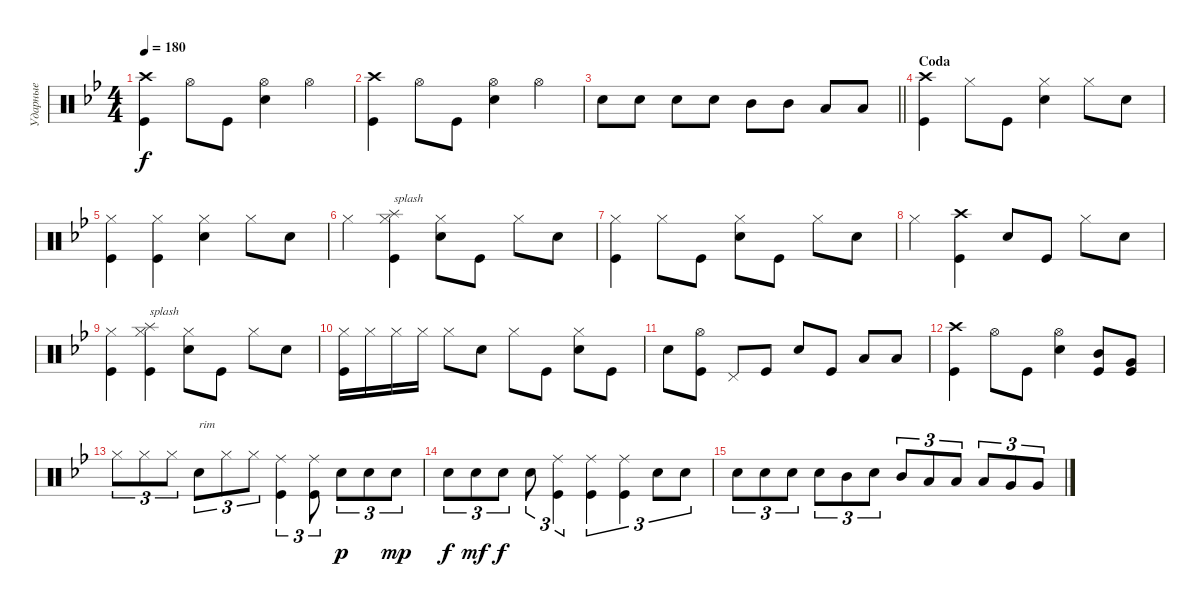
\track ("Ударные" "Ударные") {instrument percussion}
\staff {score}
\articulation defaults
\ts (4 4)
\tempo 180
\clef neutral
\ks gminor
("Crash high (hit)" "Kick (hit)").4{dy f} "Hi-Hat (open)".8 "Kick (hit)".8 ("Hi-Hat (open)" "Snare (hit) 2").4 "Hi-Hat (open)".4 |
("Crash high (hit)" "Kick (hit)").4 "Hi-Hat (open)".8 "Kick (hit)".8 ("Hi-Hat (open)" "Snare (hit) 2").4 "Hi-Hat (open)".4 |
\barLineRight lightlight "Snare (hit) 2".8 "Snare (hit) 2".8 "Snare (hit) 2".8 "Snare (hit) 2".8 "Mid Tom (hit)".8 "Mid Tom (hit)".8 "Low Tom (hit)".8 "Low Tom (hit)".8
|
\section ("" "Coda")
("Kick (hit)" "Crash high (hit)").4 "Hi-Hat (closed)".8 "Kick (hit)".8 ("Hi-Hat (closed)" "Snare (hit) 2").4 "Hi-Hat (closed)".8 "Snare (hit) 2".8 |
("Kick (hit)" "Hi-Hat (closed)").4 ("Hi-Hat (closed)" "Kick (hit)").4 ("Hi-Hat (closed)" "Snare (hit) 2").4 "Hi-Hat (closed)".8 "Snare (hit) 2".8 |
"Hi-Hat (closed)".4 ("Kick (hit)" "Splash (hit)" "Hi-Hat (closed)").4{txt "splash"} ("Snare (hit) 2" "Hi-Hat (closed)").8 "Kick (hit)".8 "Hi-Hat (closed)".8 "Snare (hit) 2".8 |
("Kick (hit)" "Hi-Hat (closed)").4 "Hi-Hat (closed)".8 "Kick (hit)".8 ("Snare (hit) 2" "Hi-Hat (closed)").8 "Kick (hit)".8 "Hi-Hat (closed)".8 "Snare (hit) 2".8 |
"Hi-Hat (closed)".4{volume 6} ("Crash high (hit)" "Kick (hit)").4 "Snare (hit) 2".8 "Kick (hit)".8 "Hi-Hat (closed)".8 "Snare (hit) 2".8 |
("Kick (hit)" "Hi-Hat (closed)").4 ("Kick (hit)" "Splash (hit)" "Hi-Hat (closed)").4{txt "splash"} ("Snare (hit) 2" "Hi-Hat (closed)").8 "Kick (hit)".8 "Hi-Hat (closed)".8 "Snare (hit) 2".8 |
("Hi-Hat (closed)" "Kick (hit)").16 "Hi-Hat (closed)".16 "Hi-Hat (closed)".16 "Hi-Hat (closed)".16 "Hi-Hat (closed)".8 "Snare (hit) 2".8 "Hi-Hat (closed)".8 "Kick (hit)".8 ("Snare (hit) 2" "Hi-Hat (closed)").8 "Kick (hit)".8 |
"Snare (hit) 2".8 ("Hi-Hat (open)" "Kick (hit)").8 "Pedal Hi-Hat (hit)".8 "Kick (hit)".8 "Snare (hit) 2".8 "Kick (hit)".8 "Low Tom (hit)".8 "Low Tom (hit)".8 |
("Kick (hit)" "Crash high (hit)").4{volume 0} "Hi-Hat (open)".8 "Kick (hit)".8 ("Snare (hit) 2" "Hi-Hat (open)").4 ("Kick (hit)" "Mid Tom (hit)").8 ("Very Low Tom (hit)" "Kick (hit)").8 |
"Hi-Hat (closed)".8{tu (3 2)} "Hi-Hat (closed)".8{tu (3 2)} "Hi-Hat (closed)".8{tu (3 2)} "Snare (hit) 2".8{tu (3 2) txt "rim"} "Hi-Hat (closed)".8{tu (3 2)} "Hi-Hat (closed)".8{tu (3 2)} ("Ride (middle)" "Kick (hit)").4{tu (3 2)} ("Ride (middle)" "Kick (hit)").8{tu (3 2)} "Snare (hit) 2".8{tu (3 2) dy p} "Snare (hit) 2".8{tu (3 2)} "Snare (hit) 2".8{tu (3 2) dy mp} |
"Snare (hit) 2".8{tu (3 2) dy f} "Snare (hit) 2".8{tu (3 2) dy mf} "Snare (hit) 2".8{tu (3 2) dy f} "Snare (hit) 2".8{tu (3 2)} ("Kick (hit)" "Ride (middle)").4{tu (3 2)} ("Kick (hit)" "Ride (middle)").4{tu (3 2)} ("Kick (hit)" "Ride (middle)").4{tu (3 2)} "Snare (hit) 2".8{tu (3 2)} "Snare (hit) 2".8{tu (3 2)} |
"Snare (hit) 2".8{tu (3 2)} "Snare (hit) 2".8{tu (3 2)} "Snare (hit) 2".8{tu (3 2)} "Snare (hit) 2".8{tu (3 2)} "Mid Tom (hit)".8{tu (3 2)} "Snare (hit) 2".8{tu (3 2)} "Mid Tom (hit)".8{tu (3 2)} "Low Tom (hit)".8{tu (3 2)} "Low Tom (hit)".8{tu (3 2)} "Low Tom (hit)".8{tu (3 2)} "Very Low Tom (hit)".8{tu (3 2)} "Very Low Tom (hit)".8{tu (3 2)}
